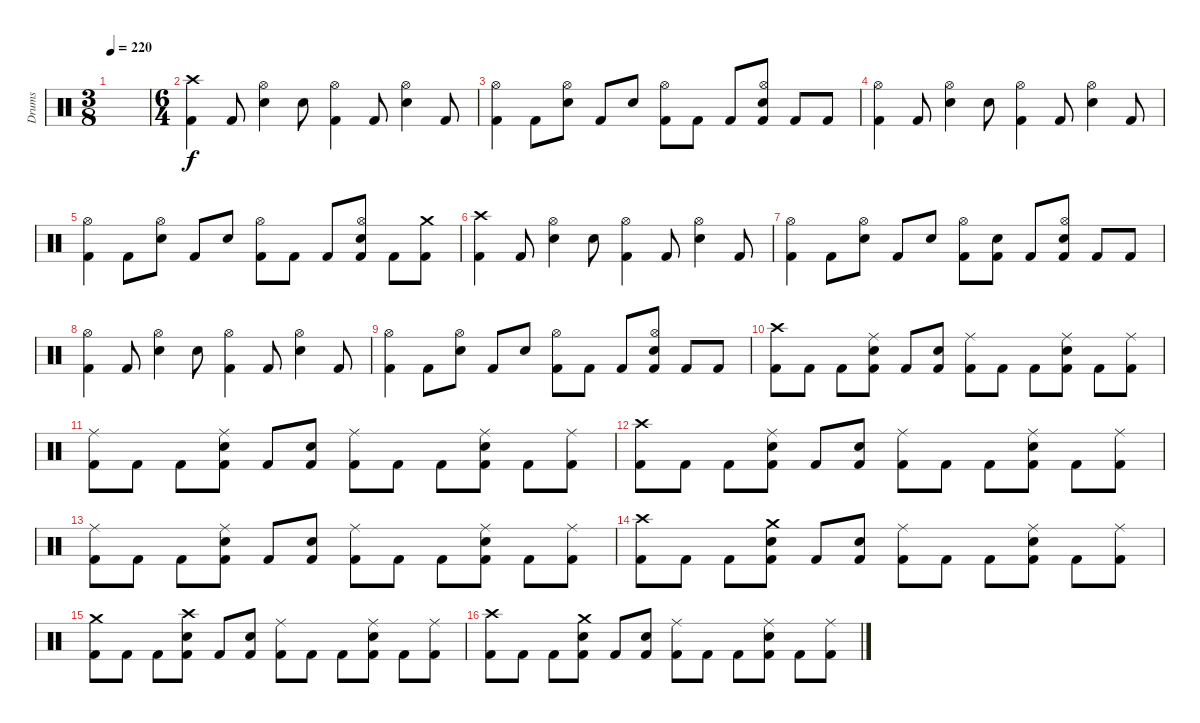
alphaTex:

\track ("Drums" "Drums") {instrument percussion}
\staff {score}
\articulation defaults
\ts (3 8)
\tempo 220
\clef neutral
\ks c
|
\ts (6 4)
("Crash high (hit)" "Kick (hit) 2").4 "Kick (hit) 2".8 ("Hi-Hat (open)" "Electric Snare (hit)").4 "Electric Snare (hit)".8 ("Hi-Hat (open)" "Kick (hit) 2").4 "Kick (hit) 2".8 ("Hi-Hat (open)" "Electric Snare (hit)").4 "Kick (hit) 2".8 |
("Hi-Hat (open)" "Kick (hit) 2").4 "Kick (hit) 2".8 ("Hi-Hat (open)" "Electric Snare (hit)").8 "Kick (hit) 2".8 "Electric Snare (hit)".8 ("Hi-Hat (open)" "Kick (hit) 2").8 "Kick (hit) 2".8 "Kick (hit) 2".8 ("Hi-Hat (open)" "Electric Snare (hit)" "Kick (hit) 2").8 "Kick (hit) 2".8 "Kick (hit) 2".8 |
("Hi-Hat (open)" "Kick (hit) 2").4 "Kick (hit) 2".8 ("Hi-Hat (open)" "Electric Snare (hit)").4 "Electric Snare (hit)".8 ("Hi-Hat (open)" "Kick (hit) 2").4 "Kick (hit) 2".8 ("Hi-Hat (open)" "Electric Snare (hit)").4 "Kick (hit) 2".8 |
("Hi-Hat (open)" "Kick (hit) 2").4 "Kick (hit) 2".8 ("Hi-Hat (open)" "Electric Snare (hit)").8 "Kick (hit) 2".8 "Electric Snare (hit)".8 ("Hi-Hat (open)" "Kick (hit) 2").8 "Kick (hit) 2".8 "Kick (hit) 2".8 ("Hi-Hat (open)" "Electric Snare (hit)" "Kick (hit) 2").8 "Kick (hit) 2".8 ("Crash medium (hit)" "Kick (hit) 2").8 |
("Crash high (hit)" "Kick (hit) 2").4 "Kick (hit) 2".8 ("Hi-Hat (open)" "Electric Snare (hit)").4 "Electric Snare (hit)".8 ("Hi-Hat (open)" "Kick (hit) 2").4 "Kick (hit) 2".8 ("Hi-Hat (open)" "Electric Snare (hit)").4 "Kick (hit) 2".8 |
("Hi-Hat (open)" "Kick (hit) 2").4 "Kick (hit) 2".8 ("Hi-Hat (open)" "Electric Snare (hit)").8 "Kick (hit) 2".8 "Electric Snare (hit)".8 ("Hi-Hat (open)" "Kick (hit) 2").8 ("Electric Snare (hit)" "Kick (hit) 2").8 "Kick (hit) 2".8 ("Hi-Hat (open)" "Electric Snare (hit)" "Kick (hit) 2").8 "Kick (hit) 2".8 "Kick (hit) 2".8 |
("Hi-Hat (open)" "Kick (hit) 2").4 "Kick (hit) 2".8 ("Hi-Hat (open)" "Electric Snare (hit)").4 "Electric Snare (hit)".8 ("Hi-Hat (open)" "Kick (hit) 2").4 "Kick (hit) 2".8 ("Hi-Hat (open)" "Electric Snare (hit)").4 "Kick (hit) 2".8 |
("Hi-Hat (open)" "Kick (hit) 2").4 "Kick (hit) 2".8 ("Hi-Hat (open)" "Electric Snare (hit)").8 "Kick (hit) 2".8 "Electric Snare (hit)".8 ("Hi-Hat (open)" "Kick (hit) 2").8 "Kick (hit) 2".8 "Kick (hit) 2".8 ("Hi-Hat (open)" "Electric Snare (hit)" "Kick (hit) 2").8 "Kick (hit) 2".8 "Kick (hit) 2".8 |
("Crash high (hit)" "Kick (hit) 2").8 "Kick (hit) 2".8 "Kick (hit) 2".8 ("Ride (middle)" "Electric Snare (hit)" "Kick (hit) 2").8 "Kick (hit) 2".8 ("Electric Snare (hit)" "Kick (hit) 2").8 ("Ride (middle)" "Kick (hit) 2").8 "Kick (hit) 2".8 "Kick (hit) 2".8 ("Ride (middle)" "Electric Snare (hit)" "Kick (hit) 2").8 "Kick (hit) 2".8 ("Ride (middle)" "Kick (hit) 2").8 |
("Ride (middle)" "Kick (hit) 2").8 "Kick (hit) 2".8 "Kick (hit) 2".8 ("Ride (middle)" "Electric Snare (hit)" "Kick (hit) 2").8 "Kick (hit) 2".8 ("Electric Snare (hit)" "Kick (hit) 2").8 ("Ride (middle)" "Kick (hit) 2").8 "Kick (hit) 2".8 "Kick (hit) 2".8 ("Ride (middle)" "Electric Snare (hit)" "Kick (hit) 2").8 "Kick (hit) 2".8 ("Ride (middle)" "Kick (hit) 2").8 |
("Crash high (hit)" "Kick (hit) 2").8 "Kick (hit) 2".8 "Kick (hit) 2".8 ("Ride (middle)" "Electric Snare (hit)" "Kick (hit) 2").8 "Kick (hit) 2".8 ("Electric Snare (hit)" "Kick (hit) 2").8 ("Ride (middle)" "Kick (hit) 2").8 "Kick (hit) 2".8 "Kick (hit) 2".8 ("Ride (middle)" "Electric Snare (hit)" "Kick (hit) 2").8 "Kick (hit) 2".8 ("Ride (middle)" "Kick (hit) 2").8 |
("Ride (middle)" "Kick (hit) 2").8 "Kick (hit) 2".8 "Kick (hit) 2".8 ("Ride (middle)" "Electric Snare (hit)" "Kick (hit) 2").8 "Kick (hit) 2".8 ("Electric Snare (hit)" "Kick (hit) 2").8 ("Ride (middle)" "Kick (hit) 2").8 "Kick (hit) 2".8 "Kick (hit) 2".8 ("Ride (middle)" "Electric Snare (hit)" "Kick (hit) 2").8 "Kick (hit) 2".8 ("Ride (middle)" "Kick (hit) 2").8 |
("Crash high (hit)" "Kick (hit) 2").8 "Kick (hit) 2".8 "Kick (hit) 2".8 ("Crash medium (hit)" "Electric Snare (hit)" "Kick (hit) 2").8 "Kick (hit) 2".8 ("Electric Snare (hit)" "Kick (hit) 2").8 ("Ride (middle)" "Kick (hit) 2").8 "Kick (hit) 2".8 "Kick (hit) 2".8 ("Ride (middle)" "Electric Snare (hit)" "Kick (hit) 2").8 "Kick (hit) 2".8 ("Ride (middle)" "Kick (hit) 2").8 |
("Crash medium (hit)" "Kick (hit) 2").8 "Kick (hit) 2".8 "Kick (hit) 2".8 ("Crash high (hit)" "Electric Snare (hit)" "Kick (hit) 2").8 "Kick (hit) 2".8 ("Electric Snare (hit)" "Kick (hit) 2").8 ("Ride (middle)" "Kick (hit) 2").8 "Kick (hit) 2".8 "Kick (hit) 2".8 ("Ride (middle)" "Electric Snare (hit)" "Kick (hit) 2").8 "Kick (hit) 2".8 ("Ride (middle)" "Kick (hit) 2").8 |
("Crash high (hit)" "Kick (hit) 2").8 "Kick (hit) 2".8 "Kick (hit) 2".8 ("Crash medium (hit)" "Electric Snare (hit)" "Kick (hit) 2").8 "Kick (hit) 2".8 ("Electric Snare (hit)" "Kick (hit) 2").8 ("Ride (middle)" "Kick (hit) 2").8 "Kick (hit) 2".8 "Kick (hit) 2".8 ("Ride (middle)" "Electric Snare (hit)" "Kick (hit) 2").8 "Kick (hit) 2".8 ("Ride (middle)" "Kick (hit) 2").8
